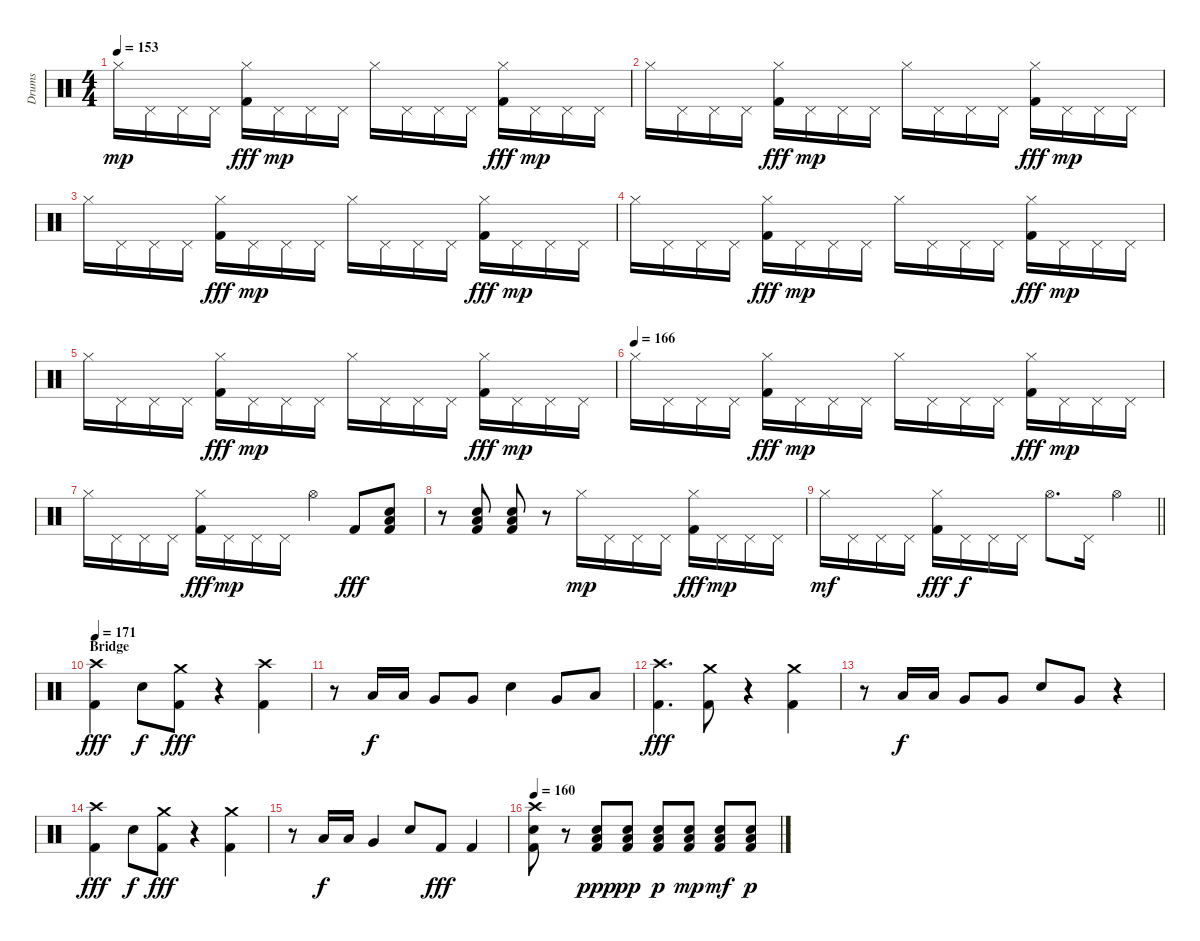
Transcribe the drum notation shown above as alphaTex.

\track ("Drums" "Drums") {instrument percussion}
\staff {score}
\articulation defaults
\ts (4 4)
\tempo 153
\clef neutral
\ks c "Hi-Hat (closed)".16{dy mp} "Pedal Hi-Hat (hit)".16 "Pedal Hi-Hat (hit)".16 "Pedal Hi-Hat (hit)".16
("Hi-Hat (closed)" "Kick (hit) 2").16{dy fff} "Pedal Hi-Hat (hit)".16{dy mp} "Pedal Hi-Hat (hit)".16 "Pedal Hi-Hat (hit)".16 "Hi-Hat (closed)".16 "Pedal Hi-Hat (hit)".16 "Pedal Hi-Hat (hit)".16 "Pedal Hi-Hat (hit)".16 ("Hi-Hat (closed)" "Kick (hit) 2").16{dy fff} "Pedal Hi-Hat (hit)".16{dy mp} "Pedal Hi-Hat (hit)".16 "Pedal Hi-Hat (hit)".16 |
"Hi-Hat (closed)".16 "Pedal Hi-Hat (hit)".16 "Pedal Hi-Hat (hit)".16 "Pedal Hi-Hat (hit)".16 ("Hi-Hat (closed)" "Kick (hit) 2").16{dy fff} "Pedal Hi-Hat (hit)".16{dy mp} "Pedal Hi-Hat (hit)".16 "Pedal Hi-Hat (hit)".16 "Hi-Hat (closed)".16 "Pedal Hi-Hat (hit)".16 "Pedal Hi-Hat (hit)".16 "Pedal Hi-Hat (hit)".16 ("Hi-Hat (closed)" "Kick (hit) 2").16{dy fff} "Pedal Hi-Hat (hit)".16{dy mp} "Pedal Hi-Hat (hit)".16 "Pedal Hi-Hat (hit)".16 |
"Hi-Hat (closed)".16 "Pedal Hi-Hat (hit)".16 "Pedal Hi-Hat (hit)".16 "Pedal Hi-Hat (hit)".16 ("Hi-Hat (closed)" "Kick (hit) 2").16{dy fff} "Pedal Hi-Hat (hit)".16{dy mp} "Pedal Hi-Hat (hit)".16 "Pedal Hi-Hat (hit)".16 "Hi-Hat (closed)".16 "Pedal Hi-Hat (hit)".16 "Pedal Hi-Hat (hit)".16 "Pedal Hi-Hat (hit)".16 ("Hi-Hat (closed)" "Kick (hit) 2").16{dy fff} "Pedal Hi-Hat (hit)".16{dy mp} "Pedal Hi-Hat (hit)".16 "Pedal Hi-Hat (hit)".16 |
"Hi-Hat (closed)".16 "Pedal Hi-Hat (hit)".16 "Pedal Hi-Hat (hit)".16 "Pedal Hi-Hat (hit)".16 ("Hi-Hat (closed)" "Kick (hit) 2").16{dy fff} "Pedal Hi-Hat (hit)".16{dy mp} "Pedal Hi-Hat (hit)".16 "Pedal Hi-Hat (hit)".16 "Hi-Hat (closed)".16 "Pedal Hi-Hat (hit)".16 "Pedal Hi-Hat (hit)".16 "Pedal Hi-Hat (hit)".16 ("Hi-Hat (closed)" "Kick (hit) 2").16{dy fff} "Pedal Hi-Hat (hit)".16{dy mp} "Pedal Hi-Hat (hit)".16 "Pedal Hi-Hat (hit)".16 |
"Hi-Hat (closed)".16 "Pedal Hi-Hat (hit)".16 "Pedal Hi-Hat (hit)".16 "Pedal Hi-Hat (hit)".16 ("Hi-Hat (closed)" "Kick (hit) 2").16{dy fff} "Pedal Hi-Hat (hit)".16{dy mp} "Pedal Hi-Hat (hit)".16 "Pedal Hi-Hat (hit)".16 "Hi-Hat (closed)".16 "Pedal Hi-Hat (hit)".16 "Pedal Hi-Hat (hit)".16 "Pedal Hi-Hat (hit)".16 ("Hi-Hat (closed)" "Kick (hit) 2").16{dy fff} "Pedal Hi-Hat (hit)".16{dy mp} "Pedal Hi-Hat (hit)".16 "Pedal Hi-Hat (hit)".16 |
\tempo (166)
"Hi-Hat (closed)".16 "Pedal Hi-Hat (hit)".16 "Pedal Hi-Hat (hit)".16 "Pedal Hi-Hat (hit)".16 ("Hi-Hat (closed)" "Kick (hit) 2").16{dy fff} "Pedal Hi-Hat (hit)".16{dy mp} "Pedal Hi-Hat (hit)".16 "Pedal Hi-Hat (hit)".16 "Hi-Hat (closed)".16 "Pedal Hi-Hat (hit)".16 "Pedal Hi-Hat (hit)".16 "Pedal Hi-Hat (hit)".16 ("Hi-Hat (closed)" "Kick (hit) 2").16{dy fff} "Pedal Hi-Hat (hit)".16{dy mp} "Pedal Hi-Hat (hit)".16 "Pedal Hi-Hat (hit)".16 |
"Hi-Hat (closed)".16 "Pedal Hi-Hat (hit)".16 "Pedal Hi-Hat (hit)".16 "Pedal Hi-Hat (hit)".16 ("Hi-Hat (closed)" "Kick (hit) 2").16{dy fff} "Pedal Hi-Hat (hit)".16{dy mp} "Pedal Hi-Hat (hit)".16 "Pedal Hi-Hat (hit)".16 "Hi-Hat (open)".4 "Kick (hit) 2".8{dy fff} ("Electric Snare (hit)" "Low Floor Tom (hit)" "Kick (hit) 2").8 |
r.8 ("Electric Snare (hit)" "Low Floor Tom (hit)" "Kick (hit) 2").8 ("Electric Snare (hit)" "Low Floor Tom (hit)" "Kick (hit) 2").8 r.8 "Hi-Hat (closed)".16{dy mp} "Pedal Hi-Hat (hit)".16 "Pedal Hi-Hat (hit)".16 "Pedal Hi-Hat (hit)".16 ("Hi-Hat (closed)" "Kick (hit) 2").16{dy fff} "Pedal Hi-Hat (hit)".16{dy mp} "Pedal Hi-Hat (hit)".16 "Pedal Hi-Hat (hit)".16 |
\barLineRight lightlight "Hi-Hat (closed)".16{dy mf} "Pedal Hi-Hat (hit)".16 "Pedal Hi-Hat (hit)".16 "Pedal Hi-Hat (hit)".16
("Hi-Hat (closed)" "Kick (hit) 2").16{dy fff} "Pedal Hi-Hat (hit)".16{dy f} "Pedal Hi-Hat (hit)".16 "Pedal Hi-Hat (hit)".16 "Hi-Hat (open)".8{d} "Pedal Hi-Hat (hit)".16 "Hi-Hat (open)".4 |
\section ("" "Bridge")
\tempo 171
("Crash high (hit)" "Kick (hit) 2").4{dy fff} "Electric Snare (hit)".8{dy f} ("Crash medium (hit)" "Kick (hit) 2").8{dy fff} r.4 ("Crash high (hit)" "Kick (hit) 2").4 |
r.8 "Low Tom (hit)".16{dy f} "Low Tom (hit)".16 "Very Low Tom (hit)".8 "Very Low Tom (hit)".8 "Electric Snare (hit)".4 "Very Low Tom (hit)".8 "Low Floor Tom (hit)".8 |
("Crash high (hit)" "Kick (hit) 2").4{d dy fff} ("Crash medium (hit)" "Kick (hit) 2").8 r.4 ("Crash medium (hit)" "Kick (hit) 2").4 |
r.8 "Low Tom (hit)".16{dy f} "Low Tom (hit)".16 "Very Low Tom (hit)".8 "Very Low Tom (hit)".8 "Electric Snare (hit)".8 "Very Low Tom (hit)".8 r.4 |
("Crash high (hit)" "Kick (hit) 2").4{dy fff} "Electric Snare (hit)".8{dy f} ("Crash medium (hit)" "Kick (hit) 2").8{dy fff} r.4 ("Crash medium (hit)" "Kick (hit) 2").4 |
r.8 "Low Tom (hit)".16{dy f} "Low Tom (hit)".16 "Very Low Tom (hit)".4 "Electric Snare (hit)".8 "Kick (hit) 2".8{dy fff} "Kick (hit) 2".4 |
\tempo 160
("Crash high (hit)" "Electric Snare (hit)" "Kick (hit) 2").8 r.8 ("Electric Snare (hit)" "Low Floor Tom (hit)" "Kick (hit) 2").8{dy ppp} ("Electric Snare (hit)" "Low Floor Tom (hit)" "Kick (hit) 2").8{dy pp} ("Electric Snare (hit)" "Low Floor Tom (hit)" "Kick (hit) 2").8{dy p} ("Electric Snare (hit)" "Low Floor Tom (hit)" "Kick (hit) 2").8{dy mp} ("Electric Snare (hit)" "Low Floor Tom (hit)" "Kick (hit) 2").8{dy mf} ("Electric Snare (hit)" "Low Floor Tom (hit)" "Kick (hit) 2").8{dy p}
